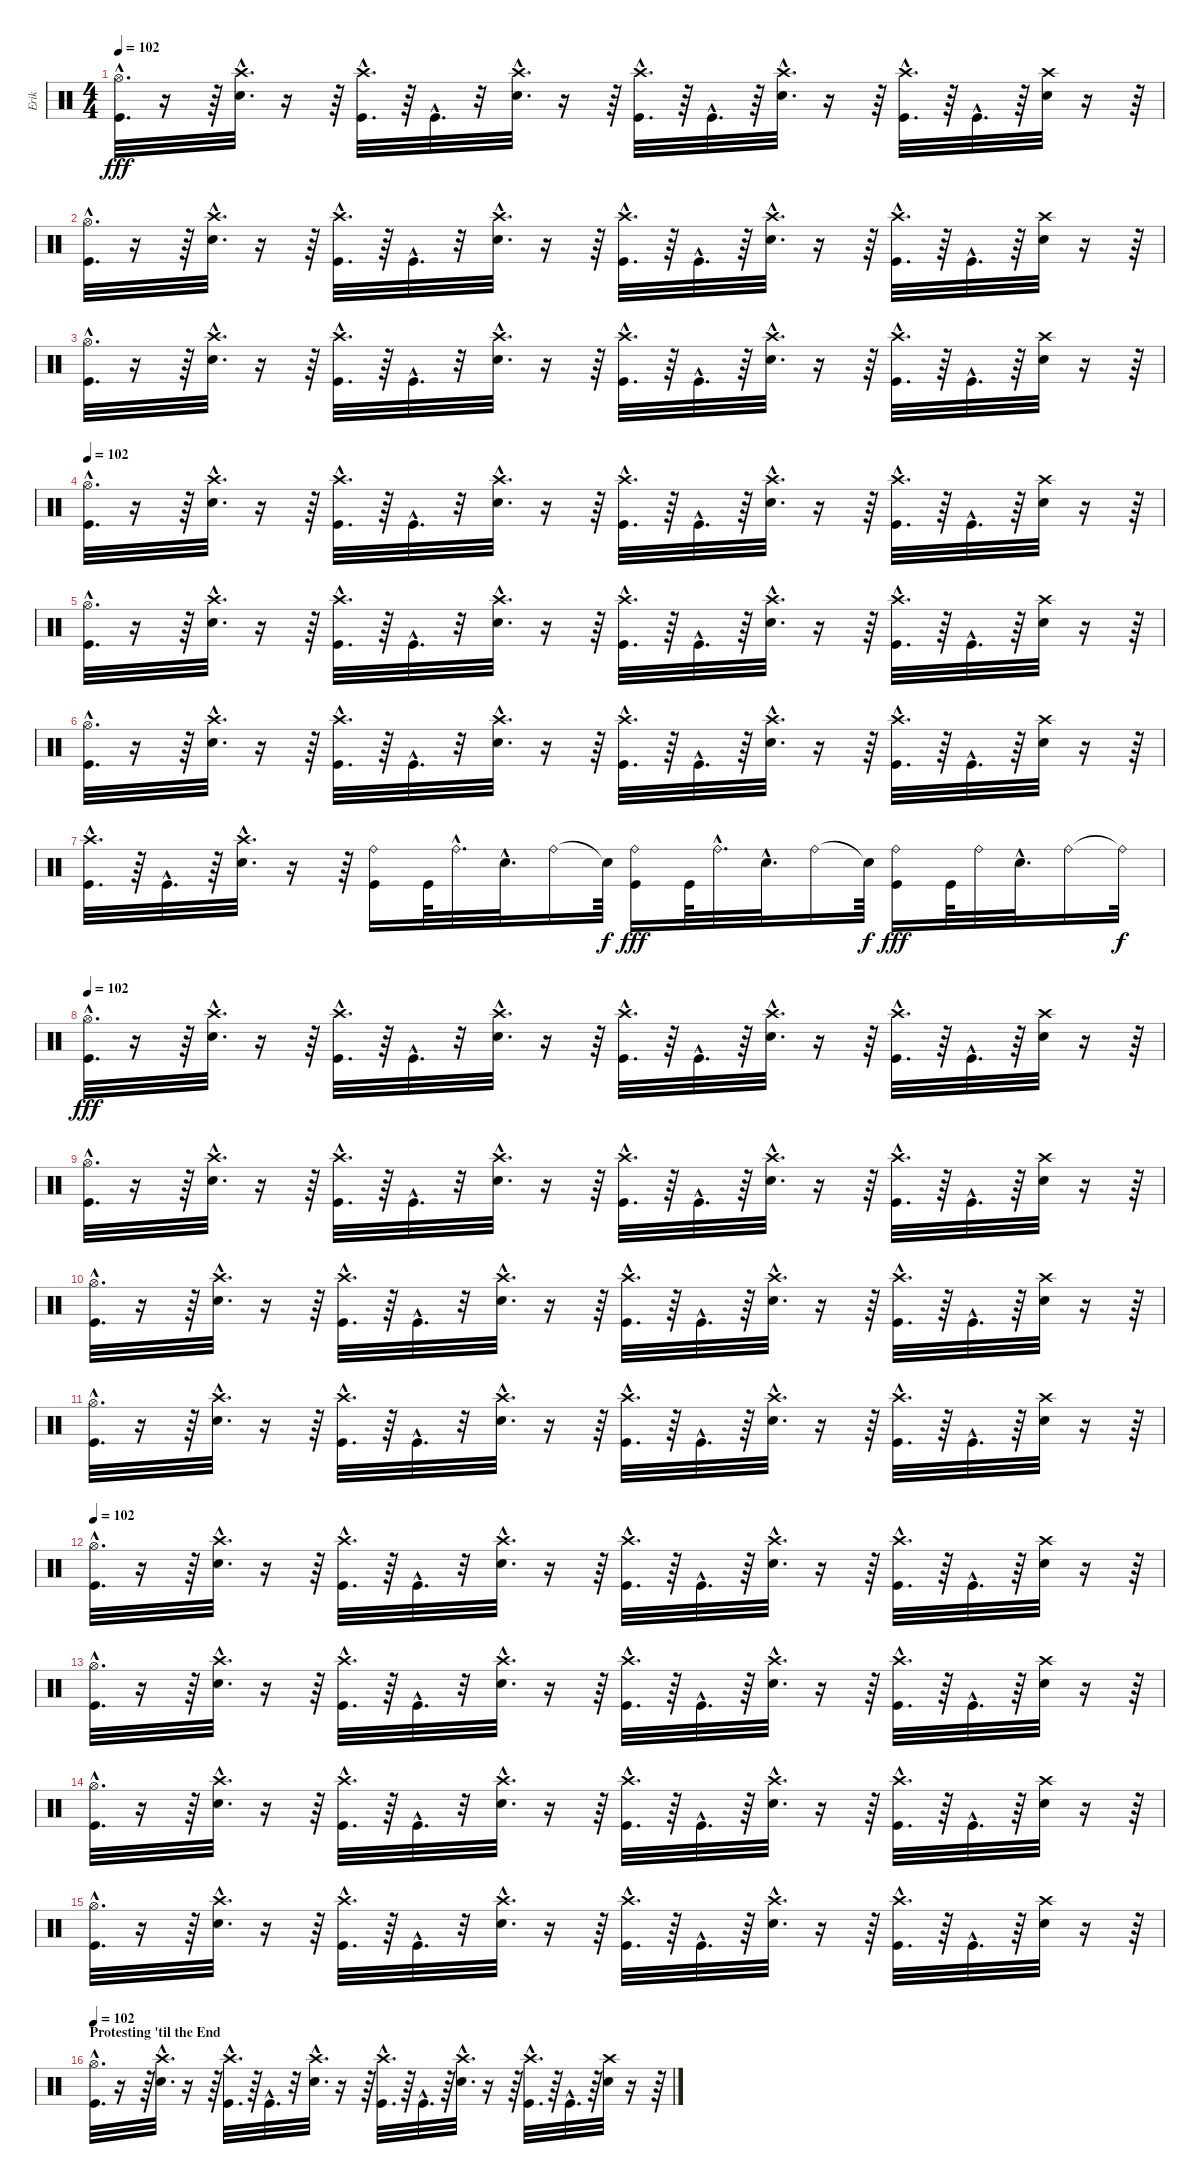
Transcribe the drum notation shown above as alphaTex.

\track ("Erik" "Erik") {instrument percussion}
\staff {score}
\articulation defaults
\ts (4 4)
\tempo 102
\clef neutral
\ks c
("Hi-Hat (open)"{hac} "Kick (hit)"{hac}).32{d dy fff} r.16 r.64 ("Crash high (hit)"{hac} "Electric Snare (hit)"{hac}).32{d} r.16 r.64 ("Kick (hit)"{hac} "Crash high (hit)"{hac}).32{d} r.64 "Kick (hit)"{hac}.32{d} r.32 ("Crash high (hit)"{hac} "Electric Snare (hit)"{hac}).32{d} r.16 r.64 ("Crash high (hit)"{hac} "Kick (hit)"{hac}).32{d} r.64 "Kick (hit)"{hac}.32{d} r.64 ("Crash high (hit)"{hac} "Electric Snare (hit)"{hac}).32{d} r.16 r.64 ("Kick (hit)"{hac} "Crash high (hit)"{hac}).32{d} r.64 "Kick (hit)"{hac}.32{d} r.64 ("Electric Snare (hit)" "Crash high (hit)").32 r.16 r.64 |
("Hi-Hat (open)"{hac} "Kick (hit)"{hac}).32{d} r.16 r.64 ("Crash high (hit)"{hac} "Electric Snare (hit)"{hac}).32{d} r.16 r.64 ("Kick (hit)"{hac} "Crash high (hit)"{hac}).32{d} r.64 "Kick (hit)"{hac}.32{d} r.32 ("Crash high (hit)"{hac} "Electric Snare (hit)"{hac}).32{d} r.16 r.64 ("Crash high (hit)"{hac} "Kick (hit)"{hac}).32{d} r.64 "Kick (hit)"{hac}.32{d} r.64 ("Crash high (hit)"{hac} "Electric Snare (hit)"{hac}).32{d} r.16 r.64 ("Kick (hit)"{hac} "Crash high (hit)"{hac}).32{d} r.64 "Kick (hit)"{hac}.32{d} r.64 ("Electric Snare (hit)" "Crash high (hit)").32 r.16 r.64 |
("Hi-Hat (open)"{hac} "Kick (hit)"{hac}).32{d} r.16 r.64 ("Crash high (hit)"{hac} "Electric Snare (hit)"{hac}).32{d} r.16 r.64 ("Kick (hit)"{hac} "Crash high (hit)"{hac}).32{d} r.64 "Kick (hit)"{hac}.32{d} r.32 ("Crash high (hit)"{hac} "Electric Snare (hit)"{hac}).32{d} r.16 r.64 ("Crash high (hit)"{hac} "Kick (hit)"{hac}).32{d} r.64 "Kick (hit)"{hac}.32{d} r.64 ("Crash high (hit)"{hac} "Electric Snare (hit)"{hac}).32{d} r.16 r.64 ("Kick (hit)"{hac} "Crash high (hit)"{hac}).32{d} r.64 "Kick (hit)"{hac}.32{d} r.64 ("Electric Snare (hit)" "Crash high (hit)").32 r.16 r.64 |
\tempo 102
("Hi-Hat (open)"{hac} "Kick (hit)"{hac}).32{d} r.16 r.64 ("Crash high (hit)"{hac} "Electric Snare (hit)"{hac}).32{d} r.16 r.64 ("Kick (hit)"{hac} "Crash high (hit)"{hac}).32{d} r.64 "Kick (hit)"{hac}.32{d} r.32 ("Crash high (hit)"{hac} "Electric Snare (hit)"{hac}).32{d} r.16 r.64 ("Crash high (hit)"{hac} "Kick (hit)"{hac}).32{d} r.64 "Kick (hit)"{hac}.32{d} r.64 ("Crash high (hit)"{hac} "Electric Snare (hit)"{hac}).32{d} r.16 r.64 ("Kick (hit)"{hac} "Crash high (hit)"{hac}).32{d} r.64 "Kick (hit)"{hac}.32{d} r.64 ("Electric Snare (hit)" "Crash high (hit)").32 r.16 r.64 |
("Hi-Hat (open)"{hac} "Kick (hit)"{hac}).32{d} r.16 r.64 ("Crash high (hit)"{hac} "Electric Snare (hit)"{hac}).32{d} r.16 r.64 ("Kick (hit)"{hac} "Crash high (hit)"{hac}).32{d} r.64 "Kick (hit)"{hac}.32{d} r.32 ("Crash high (hit)"{hac} "Electric Snare (hit)"{hac}).32{d} r.16 r.64 ("Crash high (hit)"{hac} "Kick (hit)"{hac}).32{d} r.64 "Kick (hit)"{hac}.32{d} r.64 ("Crash high (hit)"{hac} "Electric Snare (hit)"{hac}).32{d} r.16 r.64 ("Kick (hit)"{hac} "Crash high (hit)"{hac}).32{d} r.64 "Kick (hit)"{hac}.32{d} r.64 ("Electric Snare (hit)" "Crash high (hit)").32 r.16 r.64 |
("Hi-Hat (open)"{hac} "Kick (hit)"{hac}).32{d} r.16 r.64 ("Crash high (hit)"{hac} "Electric Snare (hit)"{hac}).32{d} r.16 r.64 ("Kick (hit)"{hac} "Crash high (hit)"{hac}).32{d} r.64 "Kick (hit)"{hac}.32{d} r.32 ("Crash high (hit)"{hac} "Electric Snare (hit)"{hac}).32{d} r.16 r.64 ("Crash high (hit)"{hac} "Kick (hit)"{hac}).32{d} r.64 "Kick (hit)"{hac}.32{d} r.64 ("Crash high (hit)"{hac} "Electric Snare (hit)"{hac}).32{d} r.16 r.64 ("Kick (hit)"{hac} "Crash high (hit)"{hac}).32{d} r.64 "Kick (hit)"{hac}.32{d} r.64 ("Electric Snare (hit)" "Crash high (hit)").32 r.16 r.64 |
("Crash high (hit)"{hac} "Kick (hit)"{hac}).32{d} r.64 "Kick (hit)"{hac}.32{d} r.64 ("Crash high (hit)"{hac} "Electric Snare (hit)"{hac}).32{d} r.16 r.64 ("Kick (hit)" "Ride (bell)").16 "Kick (hit)".64 "Ride (bell)"{hac}.32{d} "Electric Snare (hit)"{hac}.32{d} "Ride (bell)".16 "Snare (hit)"{t}.64{dy f} ("Ride (bell)" "Kick (hit)").16{dy fff} "Kick (hit)".64 "Ride (bell)"{hac}.32{d} "Electric Snare (hit)"{hac}.32{d} "Ride (bell)".16 "Snare (hit)"{t}.64{dy f} ("Ride (bell)" "Kick (hit)").16{dy fff} "Kick (hit)".64 "Ride (bell)".32 "Electric Snare (hit)"{hac}.32{d} "Ride (bell)".16 "Ride (bell)"{t}.32{dy f} |
\tempo 102
("Hi-Hat (open)"{hac} "Kick (hit)"{hac}).32{d dy fff} r.16 r.64 ("Crash high (hit)"{hac} "Electric Snare (hit)"{hac}).32{d} r.16 r.64 ("Kick (hit)"{hac} "Crash high (hit)"{hac}).32{d} r.64 "Kick (hit)"{hac}.32{d} r.32 ("Crash high (hit)"{hac} "Electric Snare (hit)"{hac}).32{d} r.16 r.64 ("Crash high (hit)"{hac} "Kick (hit)"{hac}).32{d} r.64 "Kick (hit)"{hac}.32{d} r.64 ("Crash high (hit)"{hac} "Electric Snare (hit)"{hac}).32{d} r.16 r.64 ("Kick (hit)"{hac} "Crash high (hit)"{hac}).32{d} r.64 "Kick (hit)"{hac}.32{d} r.64 ("Electric Snare (hit)" "Crash high (hit)").32 r.16 r.64 |
("Hi-Hat (open)"{hac} "Kick (hit)"{hac}).32{d} r.16 r.64 ("Crash high (hit)"{hac} "Electric Snare (hit)"{hac}).32{d} r.16 r.64 ("Kick (hit)"{hac} "Crash high (hit)"{hac}).32{d} r.64 "Kick (hit)"{hac}.32{d} r.32 ("Crash high (hit)"{hac} "Electric Snare (hit)"{hac}).32{d} r.16 r.64 ("Crash high (hit)"{hac} "Kick (hit)"{hac}).32{d} r.64 "Kick (hit)"{hac}.32{d} r.64 ("Crash high (hit)"{hac} "Electric Snare (hit)"{hac}).32{d} r.16 r.64 ("Kick (hit)"{hac} "Crash high (hit)"{hac}).32{d} r.64 "Kick (hit)"{hac}.32{d} r.64 ("Electric Snare (hit)" "Crash high (hit)").32 r.16 r.64 |
("Hi-Hat (open)"{hac} "Kick (hit)"{hac}).32{d} r.16 r.64 ("Crash high (hit)"{hac} "Electric Snare (hit)"{hac}).32{d} r.16 r.64 ("Kick (hit)"{hac} "Crash high (hit)"{hac}).32{d} r.64 "Kick (hit)"{hac}.32{d} r.32 ("Crash high (hit)"{hac} "Electric Snare (hit)"{hac}).32{d} r.16 r.64 ("Crash high (hit)"{hac} "Kick (hit)"{hac}).32{d} r.64 "Kick (hit)"{hac}.32{d} r.64 ("Crash high (hit)"{hac} "Electric Snare (hit)"{hac}).32{d} r.16 r.64 ("Kick (hit)"{hac} "Crash high (hit)"{hac}).32{d} r.64 "Kick (hit)"{hac}.32{d} r.64 ("Electric Snare (hit)" "Crash high (hit)").32 r.16 r.64 |
("Hi-Hat (open)"{hac} "Kick (hit)"{hac}).32{d} r.16 r.64 ("Crash high (hit)"{hac} "Electric Snare (hit)"{hac}).32{d} r.16 r.64 ("Kick (hit)"{hac} "Crash high (hit)"{hac}).32{d} r.64 "Kick (hit)"{hac}.32{d} r.32 ("Crash high (hit)"{hac} "Electric Snare (hit)"{hac}).32{d} r.16 r.64 ("Crash high (hit)"{hac} "Kick (hit)"{hac}).32{d} r.64 "Kick (hit)"{hac}.32{d} r.64 ("Crash high (hit)"{hac} "Electric Snare (hit)"{hac}).32{d} r.16 r.64 ("Kick (hit)"{hac} "Crash high (hit)"{hac}).32{d} r.64 "Kick (hit)"{hac}.32{d} r.64 ("Electric Snare (hit)" "Crash high (hit)").32 r.16 r.64 |
\tempo 102
("Hi-Hat (open)"{hac} "Kick (hit)"{hac}).32{d} r.16 r.64 ("Crash high (hit)"{hac} "Electric Snare (hit)"{hac}).32{d} r.16 r.64 ("Kick (hit)"{hac} "Crash high (hit)"{hac}).32{d} r.64 "Kick (hit)"{hac}.32{d} r.32 ("Crash high (hit)"{hac} "Electric Snare (hit)"{hac}).32{d} r.16 r.64 ("Crash high (hit)"{hac} "Kick (hit)"{hac}).32{d} r.64 "Kick (hit)"{hac}.32{d} r.64 ("Crash high (hit)"{hac} "Electric Snare (hit)"{hac}).32{d} r.16 r.64 ("Kick (hit)"{hac} "Crash high (hit)"{hac}).32{d} r.64 "Kick (hit)"{hac}.32{d} r.64 ("Electric Snare (hit)" "Crash high (hit)").32 r.16 r.64 |
("Hi-Hat (open)"{hac} "Kick (hit)"{hac}).32{d} r.16 r.64 ("Crash high (hit)"{hac} "Electric Snare (hit)"{hac}).32{d} r.16 r.64 ("Kick (hit)"{hac} "Crash high (hit)"{hac}).32{d} r.64 "Kick (hit)"{hac}.32{d} r.32 ("Crash high (hit)"{hac} "Electric Snare (hit)"{hac}).32{d} r.16 r.64 ("Crash high (hit)"{hac} "Kick (hit)"{hac}).32{d} r.64 "Kick (hit)"{hac}.32{d} r.64 ("Crash high (hit)"{hac} "Electric Snare (hit)"{hac}).32{d} r.16 r.64 ("Kick (hit)"{hac} "Crash high (hit)"{hac}).32{d} r.64 "Kick (hit)"{hac}.32{d} r.64 ("Electric Snare (hit)" "Crash high (hit)").32 r.16 r.64 |
("Hi-Hat (open)"{hac} "Kick (hit)"{hac}).32{d} r.16 r.64 ("Crash high (hit)"{hac} "Electric Snare (hit)"{hac}).32{d} r.16 r.64 ("Kick (hit)"{hac} "Crash high (hit)"{hac}).32{d} r.64 "Kick (hit)"{hac}.32{d} r.32 ("Crash high (hit)"{hac} "Electric Snare (hit)"{hac}).32{d} r.16 r.64 ("Crash high (hit)"{hac} "Kick (hit)"{hac}).32{d} r.64 "Kick (hit)"{hac}.32{d} r.64 ("Crash high (hit)"{hac} "Electric Snare (hit)"{hac}).32{d} r.16 r.64 ("Kick (hit)"{hac} "Crash high (hit)"{hac}).32{d} r.64 "Kick (hit)"{hac}.32{d} r.64 ("Electric Snare (hit)" "Crash high (hit)").32 r.16 r.64 |
("Hi-Hat (open)"{hac} "Kick (hit)"{hac}).32{d} r.16 r.64 ("Crash high (hit)"{hac} "Electric Snare (hit)"{hac}).32{d} r.16 r.64 ("Kick (hit)"{hac} "Crash high (hit)"{hac}).32{d} r.64 "Kick (hit)"{hac}.32{d} r.32 ("Crash high (hit)"{hac} "Electric Snare (hit)"{hac}).32{d} r.16 r.64 ("Crash high (hit)"{hac} "Kick (hit)"{hac}).32{d} r.64 "Kick (hit)"{hac}.32{d} r.64 ("Crash high (hit)"{hac} "Electric Snare (hit)"{hac}).32{d} r.16 r.64 ("Kick (hit)"{hac} "Crash high (hit)"{hac}).32{d} r.64 "Kick (hit)"{hac}.32{d} r.64 ("Electric Snare (hit)" "Crash high (hit)").32 r.16 r.64 |
\section ("" "Protesting 'til the End")
\tempo 102
("Hi-Hat (open)"{hac} "Kick (hit)"{hac}).32{d} r.16 r.64 ("Crash high (hit)"{hac} "Electric Snare (hit)"{hac}).32{d} r.16 r.64 ("Kick (hit)"{hac} "Crash high (hit)"{hac}).32{d} r.64 "Kick (hit)"{hac}.32{d} r.32 ("Crash high (hit)"{hac} "Electric Snare (hit)"{hac}).32{d} r.16 r.64 ("Crash high (hit)"{hac} "Kick (hit)"{hac}).32{d} r.64 "Kick (hit)"{hac}.32{d} r.64 ("Crash high (hit)"{hac} "Electric Snare (hit)"{hac}).32{d} r.16 r.64 ("Kick (hit)"{hac} "Crash high (hit)"{hac}).32{d} r.64 "Kick (hit)"{hac}.32{d} r.64 ("Electric Snare (hit)" "Crash high (hit)").32 r.16 r.64
